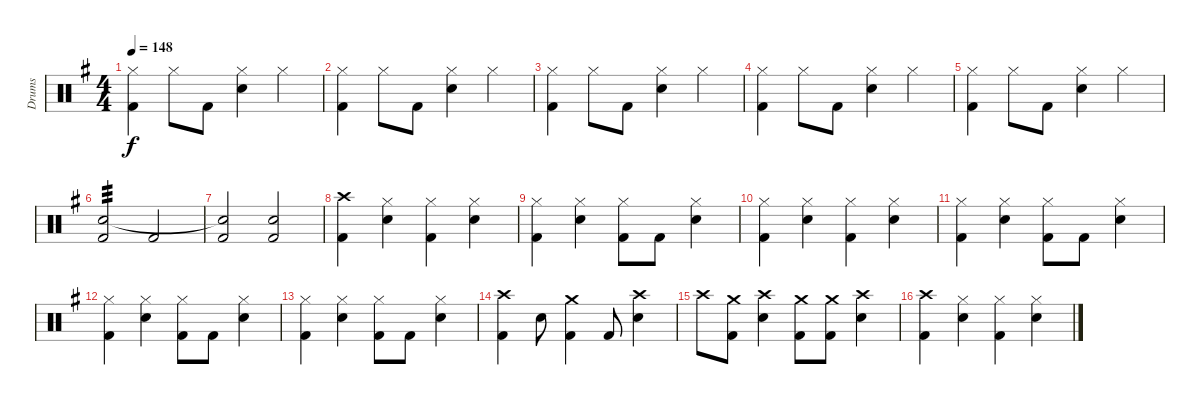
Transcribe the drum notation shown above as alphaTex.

\track ("Drums" "Drums") {instrument percussion}
\staff {score}
\articulation defaults
\ts (4 4)
\tempo 148
\clef neutral
\ks g
("Kick (hit) 2" "Hi-Hat (closed)").4{dy f} "Hi-Hat (closed)".8 "Kick (hit) 2".8 ("Snare (hit) 2" "Hi-Hat (closed)").4 "Hi-Hat (closed)".4 |
("Kick (hit) 2" "Hi-Hat (closed)").4 "Hi-Hat (closed)".8 "Kick (hit) 2".8 ("Snare (hit) 2" "Hi-Hat (closed)").4 "Hi-Hat (closed)".4 |
("Kick (hit) 2" "Hi-Hat (closed)").4 "Hi-Hat (closed)".8 "Kick (hit) 2".8 ("Snare (hit) 2" "Hi-Hat (closed)").4 "Hi-Hat (closed)".4 |
("Kick (hit) 2" "Hi-Hat (closed)").4 "Hi-Hat (closed)".8 "Kick (hit) 2".8 ("Snare (hit) 2" "Hi-Hat (closed)").4 "Hi-Hat (closed)".4 |
("Kick (hit) 2" "Hi-Hat (closed)").4 "Hi-Hat (closed)".8 "Kick (hit) 2".8 ("Snare (hit) 2" "Hi-Hat (closed)").4 "Hi-Hat (closed)".4 |
("Kick (hit) 2" "Snare (hit) 2").2{tp 3} "Kick (hit) 2".2 |
("Kick (hit) 2" "Snare (hit)"{t}).2 ("Kick (hit) 2" "Snare (hit) 2").2 |
\ks eminor
("Kick (hit) 2" "Crash high (hit)").4 ("Snare (hit) 2" "Hi-Hat (closed)").4 ("Kick (hit) 2" "Hi-Hat (closed)").4 ("Snare (hit) 2" "Hi-Hat (closed)").4 |
("Kick (hit) 2" "Hi-Hat (closed)").4 ("Snare (hit) 2" "Hi-Hat (closed)").4 ("Kick (hit) 2" "Hi-Hat (closed)").8 "Kick (hit) 2".8 ("Snare (hit) 2" "Hi-Hat (closed)").4 |
("Kick (hit) 2" "Hi-Hat (closed)").4 ("Snare (hit) 2" "Hi-Hat (closed)").4 ("Kick (hit) 2" "Hi-Hat (closed)").4 ("Snare (hit) 2" "Hi-Hat (closed)").4 |
("Kick (hit) 2" "Hi-Hat (closed)").4 ("Snare (hit) 2" "Hi-Hat (closed)").4 ("Kick (hit) 2" "Hi-Hat (closed)").8 "Kick (hit) 2".8 ("Snare (hit) 2" "Hi-Hat (closed)").4 |
("Kick (hit) 2" "Hi-Hat (closed)").4 ("Snare (hit) 2" "Hi-Hat (closed)").4 ("Kick (hit) 2" "Hi-Hat (closed)").8 "Kick (hit) 2".8 ("Snare (hit) 2" "Hi-Hat (closed)").4 |
("Kick (hit) 2" "Hi-Hat (closed)").4 ("Snare (hit) 2" "Hi-Hat (closed)").4 ("Kick (hit) 2" "Hi-Hat (closed)").8 "Kick (hit) 2".8 ("Snare (hit) 2" "Hi-Hat (closed)").4 |
("Kick (hit) 2" "Crash high (hit)").4 "Snare (hit) 2".8 ("Kick (hit) 2" "Crash medium (hit)").4 "Kick (hit) 2".8 ("Snare (hit) 2" "Crash high (hit)").4 |
"Crash high (hit)".8 ("Kick (hit) 2" "Crash medium (hit)").8 ("Snare (hit) 2" "Crash high (hit)").4 ("Kick (hit) 2" "Crash medium (hit)").8 ("Kick (hit) 2" "Crash medium (hit)").8 ("Snare (hit) 2" "Crash high (hit)").4 |
("Kick (hit) 2" "Crash high (hit)").4 ("Snare (hit) 2" "Hi-Hat (closed)").4 ("Kick (hit) 2" "Hi-Hat (closed)").4 ("Snare (hit) 2" "Hi-Hat (closed)").4
